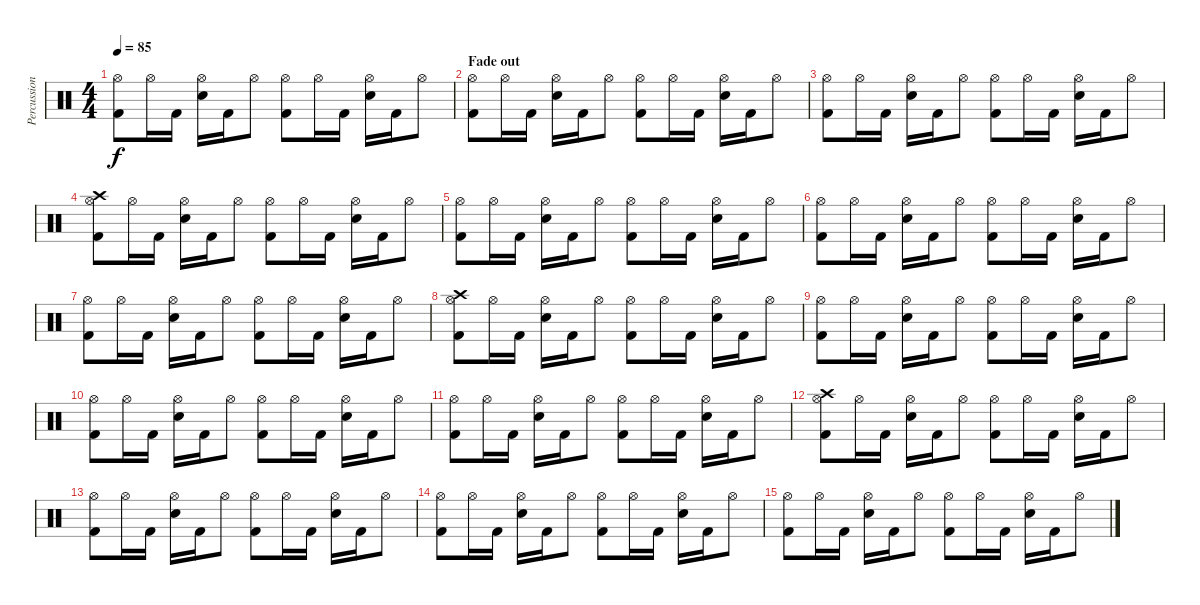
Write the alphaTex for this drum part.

\track ("Percussions" "Percussion") {instrument percussion}
\staff {score}
\articulation defaults
\ts (4 4)
\tempo 85
\clef neutral
\ks c
("Kick (hit) 2" "Hi-Hat (open)").8{dy f} "Hi-Hat (open)".16 "Kick (hit) 2".16 ("Electric Snare (hit)" "Hi-Hat (open)").16 "Kick (hit) 2".16 "Hi-Hat (open)".8 ("Hi-Hat (open)" "Kick (hit) 2").8 "Hi-Hat (open)".16 "Kick (hit) 2".16 ("Electric Snare (hit)" "Hi-Hat (open)").16 "Kick (hit) 2".16 "Hi-Hat (open)".8 |
\section ("" "Fade out")
("Kick (hit) 2" "Hi-Hat (open)").8 "Hi-Hat (open)".16 "Kick (hit) 2".16 ("Electric Snare (hit)" "Hi-Hat (open)").16 "Kick (hit) 2".16 "Hi-Hat (open)".8 ("Hi-Hat (open)" "Kick (hit) 2").8 "Hi-Hat (open)".16 "Kick (hit) 2".16 ("Electric Snare (hit)" "Hi-Hat (open)").16 "Kick (hit) 2".16 "Hi-Hat (open)".8 |
("Kick (hit) 2" "Hi-Hat (open)").8 "Hi-Hat (open)".16 "Kick (hit) 2".16 ("Electric Snare (hit)" "Hi-Hat (open)").16 "Kick (hit) 2".16 "Hi-Hat (open)".8 ("Hi-Hat (open)" "Kick (hit) 2").8 "Hi-Hat (open)".16 "Kick (hit) 2".16 ("Electric Snare (hit)" "Hi-Hat (open)").16 "Kick (hit) 2".16 "Hi-Hat (open)".8 |
("Crash high (hit)" "Kick (hit) 2" "Hi-Hat (open)").8 "Hi-Hat (open)".16 "Kick (hit) 2".16 ("Electric Snare (hit)" "Hi-Hat (open)").16 "Kick (hit) 2".16 "Hi-Hat (open)".8 ("Hi-Hat (open)" "Kick (hit) 2").8 "Hi-Hat (open)".16 "Kick (hit) 2".16 ("Electric Snare (hit)" "Hi-Hat (open)").16 "Kick (hit) 2".16 "Hi-Hat (open)".8 |
("Kick (hit) 2" "Hi-Hat (open)").8 "Hi-Hat (open)".16 "Kick (hit) 2".16 ("Electric Snare (hit)" "Hi-Hat (open)").16 "Kick (hit) 2".16 "Hi-Hat (open)".8 ("Hi-Hat (open)" "Kick (hit) 2").8 "Hi-Hat (open)".16 "Kick (hit) 2".16 ("Electric Snare (hit)" "Hi-Hat (open)").16 "Kick (hit) 2".16 "Hi-Hat (open)".8 |
("Kick (hit) 2" "Hi-Hat (open)").8 "Hi-Hat (open)".16 "Kick (hit) 2".16 ("Electric Snare (hit)" "Hi-Hat (open)").16 "Kick (hit) 2".16 "Hi-Hat (open)".8 ("Hi-Hat (open)" "Kick (hit) 2").8 "Hi-Hat (open)".16 "Kick (hit) 2".16 ("Electric Snare (hit)" "Hi-Hat (open)").16 "Kick (hit) 2".16 "Hi-Hat (open)".8 |
("Kick (hit) 2" "Hi-Hat (open)").8 "Hi-Hat (open)".16 "Kick (hit) 2".16 ("Electric Snare (hit)" "Hi-Hat (open)").16 "Kick (hit) 2".16 "Hi-Hat (open)".8 ("Hi-Hat (open)" "Kick (hit) 2").8 "Hi-Hat (open)".16 "Kick (hit) 2".16 ("Electric Snare (hit)" "Hi-Hat (open)").16 "Kick (hit) 2".16 "Hi-Hat (open)".8 |
("Crash high (hit)" "Kick (hit) 2" "Hi-Hat (open)").8 "Hi-Hat (open)".16 "Kick (hit) 2".16 ("Electric Snare (hit)" "Hi-Hat (open)").16 "Kick (hit) 2".16 "Hi-Hat (open)".8 ("Hi-Hat (open)" "Kick (hit) 2").8 "Hi-Hat (open)".16 "Kick (hit) 2".16 ("Electric Snare (hit)" "Hi-Hat (open)").16 "Kick (hit) 2".16 "Hi-Hat (open)".8 |
("Kick (hit) 2" "Hi-Hat (open)").8 "Hi-Hat (open)".16 "Kick (hit) 2".16 ("Electric Snare (hit)" "Hi-Hat (open)").16 "Kick (hit) 2".16 "Hi-Hat (open)".8 ("Hi-Hat (open)" "Kick (hit) 2").8 "Hi-Hat (open)".16 "Kick (hit) 2".16 ("Electric Snare (hit)" "Hi-Hat (open)").16 "Kick (hit) 2".16 "Hi-Hat (open)".8 |
("Kick (hit) 2" "Hi-Hat (open)").8 "Hi-Hat (open)".16 "Kick (hit) 2".16 ("Electric Snare (hit)" "Hi-Hat (open)").16 "Kick (hit) 2".16 "Hi-Hat (open)".8 ("Hi-Hat (open)" "Kick (hit) 2").8 "Hi-Hat (open)".16 "Kick (hit) 2".16 ("Electric Snare (hit)" "Hi-Hat (open)").16 "Kick (hit) 2".16 "Hi-Hat (open)".8 |
("Kick (hit) 2" "Hi-Hat (open)").8 "Hi-Hat (open)".16 "Kick (hit) 2".16 ("Electric Snare (hit)" "Hi-Hat (open)").16 "Kick (hit) 2".16 "Hi-Hat (open)".8 ("Hi-Hat (open)" "Kick (hit) 2").8 "Hi-Hat (open)".16 "Kick (hit) 2".16 ("Electric Snare (hit)" "Hi-Hat (open)").16 "Kick (hit) 2".16 "Hi-Hat (open)".8 |
("Crash high (hit)" "Kick (hit) 2" "Hi-Hat (open)").8 "Hi-Hat (open)".16 "Kick (hit) 2".16 ("Electric Snare (hit)" "Hi-Hat (open)").16 "Kick (hit) 2".16 "Hi-Hat (open)".8 ("Hi-Hat (open)" "Kick (hit) 2").8 "Hi-Hat (open)".16 "Kick (hit) 2".16 ("Electric Snare (hit)" "Hi-Hat (open)").16 "Kick (hit) 2".16 "Hi-Hat (open)".8 |
("Kick (hit) 2" "Hi-Hat (open)").8 "Hi-Hat (open)".16 "Kick (hit) 2".16 ("Electric Snare (hit)" "Hi-Hat (open)").16 "Kick (hit) 2".16 "Hi-Hat (open)".8 ("Hi-Hat (open)" "Kick (hit) 2").8 "Hi-Hat (open)".16 "Kick (hit) 2".16 ("Electric Snare (hit)" "Hi-Hat (open)").16 "Kick (hit) 2".16 "Hi-Hat (open)".8 |
("Kick (hit) 2" "Hi-Hat (open)").8 "Hi-Hat (open)".16 "Kick (hit) 2".16 ("Electric Snare (hit)" "Hi-Hat (open)").16 "Kick (hit) 2".16 "Hi-Hat (open)".8 ("Hi-Hat (open)" "Kick (hit) 2").8 "Hi-Hat (open)".16 "Kick (hit) 2".16 ("Electric Snare (hit)" "Hi-Hat (open)").16 "Kick (hit) 2".16 "Hi-Hat (open)".8 |
("Kick (hit) 2" "Hi-Hat (open)").8 "Hi-Hat (open)".16 "Kick (hit) 2".16 ("Electric Snare (hit)" "Hi-Hat (open)").16 "Kick (hit) 2".16 "Hi-Hat (open)".8 ("Hi-Hat (open)" "Kick (hit) 2").8 "Hi-Hat (open)".16 "Kick (hit) 2".16 ("Electric Snare (hit)" "Hi-Hat (open)").16 "Kick (hit) 2".16 "Hi-Hat (open)".8
